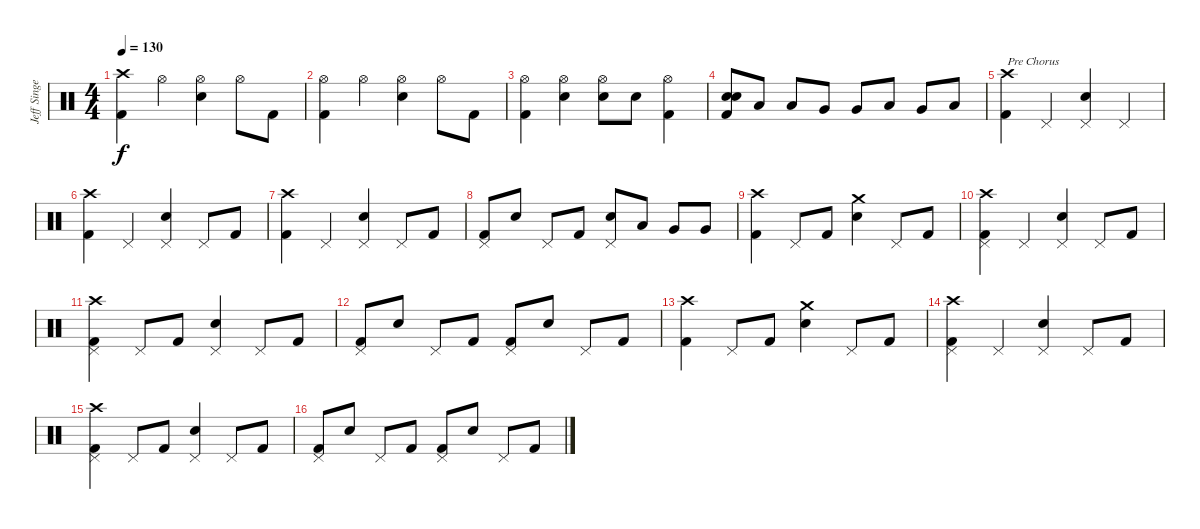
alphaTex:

\track ("Jeff Singer" "Jeff Singe") {instrument percussion}
\staff {score}
\articulation defaults
\ts (4 4)
\tempo 130
\clef neutral
\ks c
("Crash high (hit)" "Kick (hit) 2").4{dy f} "Hi-Hat (open)".4 ("Hi-Hat (open)" "Snare (hit) 2").4 "Hi-Hat (open)".8 "Kick (hit) 2".8 |
("Hi-Hat (open)" "Kick (hit) 2").4 "Hi-Hat (open)".4 ("Hi-Hat (open)" "Snare (hit) 2").4 "Hi-Hat (open)".8 "Kick (hit) 2".8 |
("Hi-Hat (open)" "Kick (hit) 2").4 ("Hi-Hat (open)" "Snare (hit) 2").4 ("Hi-Hat (open)" "Snare (hit) 2").8 "Snare (hit) 2".8 ("Hi-Hat (open)" "Kick (hit) 2").4 |
("Snare (hit) 2" "Snare (hit) 2" "Kick (hit) 2").8 "Low Tom (hit)".8 "Low Tom (hit)".8 "Very Low Tom (hit)".8 "Very Low Tom (hit)".8 "Low Tom (hit)".8 "Very Low Tom (hit)".8 "Low Floor Tom (hit)".8 |
("Crash high (hit)" "Kick (hit) 2").4{txt "Pre Chorus"} "Pedal Hi-Hat (hit)".4 ("Pedal Hi-Hat (hit)" "Snare (hit) 2").4 "Pedal Hi-Hat (hit)".4 |
("Crash high (hit)" "Kick (hit) 2").4 "Pedal Hi-Hat (hit)".4 ("Pedal Hi-Hat (hit)" "Snare (hit) 2").4 "Pedal Hi-Hat (hit)".8 "Kick (hit) 2".8 |
("Crash high (hit)" "Kick (hit) 2").4 "Pedal Hi-Hat (hit)".4 ("Pedal Hi-Hat (hit)" "Snare (hit) 2").4 "Pedal Hi-Hat (hit)".8 "Kick (hit) 2".8 |
("Pedal Hi-Hat (hit)" "Kick (hit) 2").8 "Snare (hit) 2".8 "Pedal Hi-Hat (hit)".8 "Kick (hit) 2".8 ("Pedal Hi-Hat (hit)" "Snare (hit) 2").8 "Low Tom (hit)".8 "Very Low Tom (hit)".8 "Very Low Tom (hit)".8 |
("Crash high (hit)" "Kick (hit) 2").4 "Pedal Hi-Hat (hit)".8 "Kick (hit) 2".8 ("Crash medium (hit)" "Snare (hit) 2").4 "Pedal Hi-Hat (hit)".8 "Kick (hit) 2".8 |
("Crash high (hit)" "Pedal Hi-Hat (hit)" "Kick (hit) 2").4 "Pedal Hi-Hat (hit)".4 ("Pedal Hi-Hat (hit)" "Snare (hit) 2").4 "Pedal Hi-Hat (hit)".8 "Kick (hit) 2".8 |
("Crash high (hit)" "Pedal Hi-Hat (hit)" "Kick (hit) 2").4 "Pedal Hi-Hat (hit)".8 "Kick (hit) 2".8 ("Pedal Hi-Hat (hit)" "Snare (hit) 2").4 "Pedal Hi-Hat (hit)".8 "Kick (hit) 2".8 |
("Pedal Hi-Hat (hit)" "Kick (hit) 2").8 "Snare (hit) 2".8 "Pedal Hi-Hat (hit)".8 "Kick (hit) 2".8 ("Pedal Hi-Hat (hit)" "Kick (hit) 2").8 "Snare (hit) 2".8 "Pedal Hi-Hat (hit)".8 "Kick (hit) 2".8 |
("Crash high (hit)" "Kick (hit) 2").4 "Pedal Hi-Hat (hit)".8 "Kick (hit) 2".8 ("Crash medium (hit)" "Snare (hit) 2").4 "Pedal Hi-Hat (hit)".8 "Kick (hit) 2".8 |
("Crash high (hit)" "Pedal Hi-Hat (hit)" "Kick (hit) 2").4 "Pedal Hi-Hat (hit)".4 ("Pedal Hi-Hat (hit)" "Snare (hit) 2").4 "Pedal Hi-Hat (hit)".8 "Kick (hit) 2".8 |
("Crash high (hit)" "Pedal Hi-Hat (hit)" "Kick (hit) 2").4 "Pedal Hi-Hat (hit)".8 "Kick (hit) 2".8 ("Pedal Hi-Hat (hit)" "Snare (hit) 2").4 "Pedal Hi-Hat (hit)".8 "Kick (hit) 2".8 |
("Pedal Hi-Hat (hit)" "Kick (hit) 2").8 "Snare (hit) 2".8 "Pedal Hi-Hat (hit)".8 "Kick (hit) 2".8 ("Pedal Hi-Hat (hit)" "Kick (hit) 2").8 "Snare (hit) 2".8 "Pedal Hi-Hat (hit)".8 "Kick (hit) 2".8
